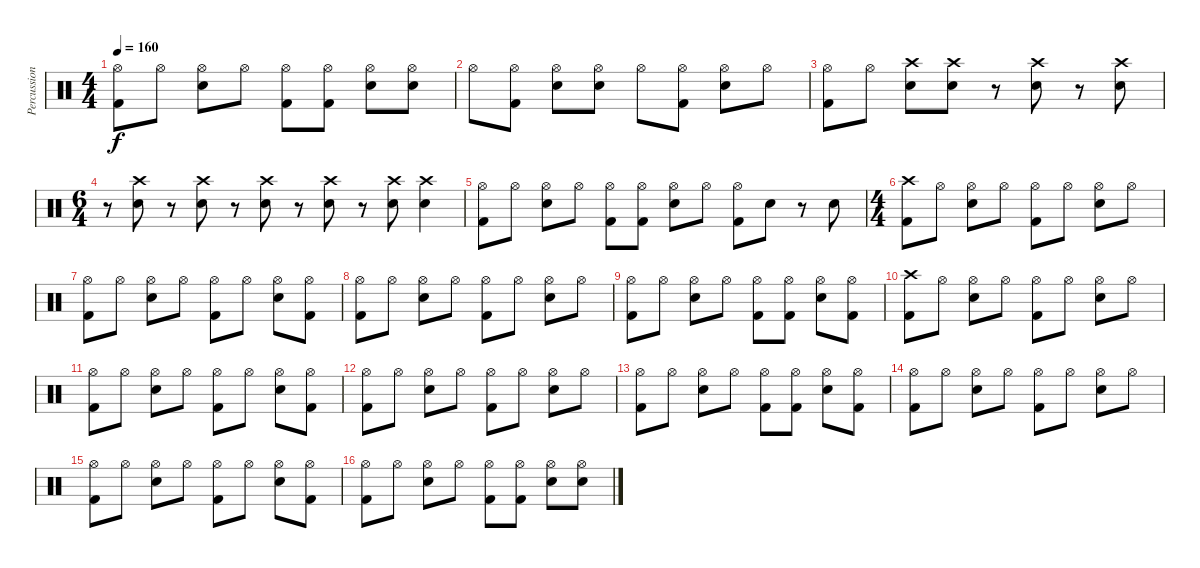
\track ("Percussion" "Percussion") {instrument percussion}
\staff {score}
\articulation defaults
\ts (4 4)
\tempo 160
\clef neutral
\ks c
("Hi-Hat (open)" "Kick (hit) 2").8{dy f} "Hi-Hat (open)".8 ("Hi-Hat (open)" "Snare (hit) 2").8 "Hi-Hat (open)".8 ("Hi-Hat (open)" "Kick (hit) 2").8 ("Hi-Hat (open)" "Kick (hit) 2").8 ("Hi-Hat (open)" "Snare (hit) 2").8 ("Hi-Hat (open)" "Snare (hit) 2").8 |
"Hi-Hat (open)".8 ("Hi-Hat (open)" "Kick (hit) 2").8 ("Hi-Hat (open)" "Snare (hit) 2").8 ("Hi-Hat (open)" "Snare (hit) 2").8 "Hi-Hat (open)".8 ("Hi-Hat (open)" "Kick (hit) 2").8 ("Hi-Hat (open)" "Snare (hit) 2").8 "Hi-Hat (open)".8 |
("Hi-Hat (open)" "Kick (hit) 2").8 "Hi-Hat (open)".8 ("Crash high (hit)" "Snare (hit) 2").8 ("Crash high (hit)" "Snare (hit) 2").8 r.8 ("Crash high (hit)" "Snare (hit) 2").8 r.8 ("Crash high (hit)" "Snare (hit) 2").8 |
\ts (6 4)
r.8 ("Crash high (hit)" "Snare (hit) 2").8 r.8 ("Crash high (hit)" "Snare (hit) 2").8 r.8 ("Crash high (hit)" "Snare (hit) 2").8 r.8 ("Crash high (hit)" "Snare (hit) 2").8 r.8 ("Crash high (hit)" "Snare (hit) 2").8 ("Crash high (hit)" "Snare (hit) 2").4 |
("Hi-Hat (open)" "Kick (hit) 2").8 "Hi-Hat (open)".8 ("Hi-Hat (open)" "Snare (hit) 2").8 "Hi-Hat (open)".8 ("Hi-Hat (open)" "Kick (hit) 2").8 ("Hi-Hat (open)" "Kick (hit) 2").8 ("Hi-Hat (open)" "Snare (hit) 2").8 "Hi-Hat (open)".8 ("Hi-Hat (open)" "Kick (hit) 2").8 "Snare (hit) 2".8 r.8 "Snare (hit) 2".8 |
\ts (4 4)
("Crash high (hit)" "Kick (hit) 2").8 "Hi-Hat (open)".8 ("Hi-Hat (open)" "Snare (hit) 2").8 "Hi-Hat (open)".8 ("Hi-Hat (open)" "Kick (hit) 2").8 "Hi-Hat (open)".8 ("Hi-Hat (open)" "Snare (hit) 2").8 "Hi-Hat (open)".8 |
("Hi-Hat (open)" "Kick (hit) 2").8 "Hi-Hat (open)".8 ("Hi-Hat (open)" "Snare (hit) 2").8 "Hi-Hat (open)".8 ("Hi-Hat (open)" "Kick (hit) 2").8 "Hi-Hat (open)".8 ("Hi-Hat (open)" "Snare (hit) 2").8 ("Hi-Hat (open)" "Kick (hit) 2").8 |
("Hi-Hat (open)" "Kick (hit) 2").8 "Hi-Hat (open)".8 ("Hi-Hat (open)" "Snare (hit) 2").8 "Hi-Hat (open)".8 ("Hi-Hat (open)" "Kick (hit) 2").8 "Hi-Hat (open)".8 ("Hi-Hat (open)" "Snare (hit) 2").8 "Hi-Hat (open)".8 |
("Hi-Hat (open)" "Kick (hit) 2").8 "Hi-Hat (open)".8 ("Hi-Hat (open)" "Snare (hit) 2").8 "Hi-Hat (open)".8 ("Hi-Hat (open)" "Kick (hit) 2").8 ("Hi-Hat (open)" "Kick (hit) 2").8 ("Hi-Hat (open)" "Snare (hit) 2").8 ("Hi-Hat (open)" "Kick (hit) 2").8 |
("Crash high (hit)" "Kick (hit) 2").8 "Hi-Hat (open)".8 ("Hi-Hat (open)" "Snare (hit) 2").8 "Hi-Hat (open)".8 ("Hi-Hat (open)" "Kick (hit) 2").8 "Hi-Hat (open)".8 ("Hi-Hat (open)" "Snare (hit) 2").8 "Hi-Hat (open)".8 |
("Hi-Hat (open)" "Kick (hit) 2").8 "Hi-Hat (open)".8 ("Hi-Hat (open)" "Snare (hit) 2").8 "Hi-Hat (open)".8 ("Hi-Hat (open)" "Kick (hit) 2").8 "Hi-Hat (open)".8 ("Hi-Hat (open)" "Snare (hit) 2").8 ("Hi-Hat (open)" "Kick (hit) 2").8 |
("Hi-Hat (open)" "Kick (hit) 2").8 "Hi-Hat (open)".8 ("Hi-Hat (open)" "Snare (hit) 2").8 "Hi-Hat (open)".8 ("Hi-Hat (open)" "Kick (hit) 2").8 "Hi-Hat (open)".8 ("Hi-Hat (open)" "Snare (hit) 2").8 "Hi-Hat (open)".8 |
("Hi-Hat (open)" "Kick (hit) 2").8 "Hi-Hat (open)".8 ("Hi-Hat (open)" "Snare (hit) 2").8 "Hi-Hat (open)".8 ("Hi-Hat (open)" "Kick (hit) 2").8 ("Hi-Hat (open)" "Kick (hit) 2").8 ("Hi-Hat (open)" "Snare (hit) 2").8 ("Hi-Hat (open)" "Kick (hit) 2").8 |
("Hi-Hat (open)" "Kick (hit) 2").8 "Hi-Hat (open)".8 ("Hi-Hat (open)" "Snare (hit) 2").8 "Hi-Hat (open)".8 ("Hi-Hat (open)" "Kick (hit) 2").8 "Hi-Hat (open)".8 ("Hi-Hat (open)" "Snare (hit) 2").8 "Hi-Hat (open)".8 |
("Hi-Hat (open)" "Kick (hit) 2").8 "Hi-Hat (open)".8 ("Hi-Hat (open)" "Snare (hit) 2").8 "Hi-Hat (open)".8 ("Hi-Hat (open)" "Kick (hit) 2").8 "Hi-Hat (open)".8 ("Hi-Hat (open)" "Snare (hit) 2").8 ("Hi-Hat (open)" "Kick (hit) 2").8 |
("Hi-Hat (open)" "Kick (hit) 2").8 "Hi-Hat (open)".8 ("Hi-Hat (open)" "Snare (hit) 2").8 "Hi-Hat (open)".8 ("Hi-Hat (open)" "Kick (hit) 2").8 ("Hi-Hat (open)" "Kick (hit) 2").8 ("Hi-Hat (open)" "Snare (hit) 2").8 ("Hi-Hat (open)" "Snare (hit) 2").8
